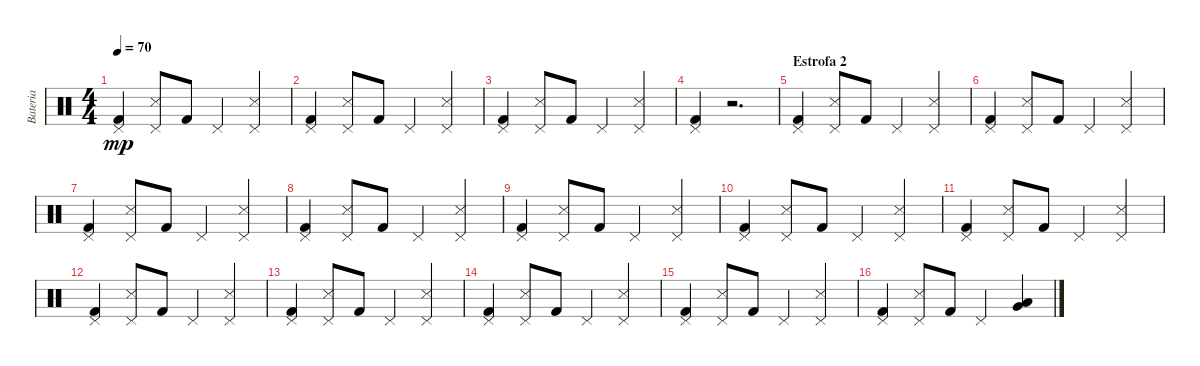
\track ("Bateria" "Bateria") {instrument percussion}
\staff {score}
\articulation defaults
\ts (4 4)
\tempo 70
\clef neutral
\ks c
("Kick (hit) 2" "Pedal Hi-Hat (hit)").4{dy mp} ("Snare (side stick) 3" "Pedal Hi-Hat (hit)").8 "Kick (hit) 2".8 "Pedal Hi-Hat (hit)".4 ("Snare (side stick) 3" "Pedal Hi-Hat (hit)").4 |
("Kick (hit) 2" "Pedal Hi-Hat (hit)").4 ("Snare (side stick) 3" "Pedal Hi-Hat (hit)").8 "Kick (hit) 2".8 "Pedal Hi-Hat (hit)".4 ("Snare (side stick) 3" "Pedal Hi-Hat (hit)").4 |
("Kick (hit) 2" "Pedal Hi-Hat (hit)").4 ("Snare (side stick) 3" "Pedal Hi-Hat (hit)").8 "Kick (hit) 2".8 "Pedal Hi-Hat (hit)".4 ("Snare (side stick) 3" "Pedal Hi-Hat (hit)").4 |
("Kick (hit) 2" "Pedal Hi-Hat (hit)").4 r.2{d} |
\section ("" "Estrofa 2")
("Kick (hit) 2" "Pedal Hi-Hat (hit)").4 ("Snare (side stick) 3" "Pedal Hi-Hat (hit)").8 "Kick (hit) 2".8 "Pedal Hi-Hat (hit)".4 ("Snare (side stick) 3" "Pedal Hi-Hat (hit)").4 |
("Kick (hit) 2" "Pedal Hi-Hat (hit)").4 ("Snare (side stick) 3" "Pedal Hi-Hat (hit)").8 "Kick (hit) 2".8 "Pedal Hi-Hat (hit)".4 ("Snare (side stick) 3" "Pedal Hi-Hat (hit)").4 |
("Kick (hit) 2" "Pedal Hi-Hat (hit)").4 ("Snare (side stick) 3" "Pedal Hi-Hat (hit)").8 "Kick (hit) 2".8 "Pedal Hi-Hat (hit)".4 ("Snare (side stick) 3" "Pedal Hi-Hat (hit)").4 |
("Kick (hit) 2" "Pedal Hi-Hat (hit)").4 ("Snare (side stick) 3" "Pedal Hi-Hat (hit)").8 "Kick (hit) 2".8 "Pedal Hi-Hat (hit)".4 ("Snare (side stick) 3" "Pedal Hi-Hat (hit)").4 |
("Kick (hit) 2" "Pedal Hi-Hat (hit)").4 ("Snare (side stick) 3" "Pedal Hi-Hat (hit)").8 "Kick (hit) 2".8 "Pedal Hi-Hat (hit)".4 ("Snare (side stick) 3" "Pedal Hi-Hat (hit)").4 |
("Kick (hit) 2" "Pedal Hi-Hat (hit)").4 ("Snare (side stick) 3" "Pedal Hi-Hat (hit)").8 "Kick (hit) 2".8 "Pedal Hi-Hat (hit)".4 ("Snare (side stick) 3" "Pedal Hi-Hat (hit)").4 |
("Kick (hit) 2" "Pedal Hi-Hat (hit)").4 ("Snare (side stick) 3" "Pedal Hi-Hat (hit)").8 "Kick (hit) 2".8 "Pedal Hi-Hat (hit)".4 ("Snare (side stick) 3" "Pedal Hi-Hat (hit)").4 |
("Kick (hit) 2" "Pedal Hi-Hat (hit)").4 ("Snare (side stick) 3" "Pedal Hi-Hat (hit)").8 "Kick (hit) 2".8 "Pedal Hi-Hat (hit)".4 ("Snare (side stick) 3" "Pedal Hi-Hat (hit)").4 |
("Kick (hit) 2" "Pedal Hi-Hat (hit)").4 ("Snare (side stick) 3" "Pedal Hi-Hat (hit)").8 "Kick (hit) 2".8 "Pedal Hi-Hat (hit)".4 ("Snare (side stick) 3" "Pedal Hi-Hat (hit)").4 |
("Kick (hit) 2" "Pedal Hi-Hat (hit)").4 ("Snare (side stick) 3" "Pedal Hi-Hat (hit)").8 "Kick (hit) 2".8 "Pedal Hi-Hat (hit)".4 ("Snare (side stick) 3" "Pedal Hi-Hat (hit)").4 |
("Kick (hit) 2" "Pedal Hi-Hat (hit)").4 ("Snare (side stick) 3" "Pedal Hi-Hat (hit)").8 "Kick (hit) 2".8 "Pedal Hi-Hat (hit)".4 ("Snare (side stick) 3" "Pedal Hi-Hat (hit)").4 |
("Kick (hit) 2" "Pedal Hi-Hat (hit)").4 ("Snare (side stick) 3" "Pedal Hi-Hat (hit)").8 "Kick (hit) 2".8 "Pedal Hi-Hat (hit)".4 ("Low Floor Tom (hit)" "Very Low Tom (hit)").4
